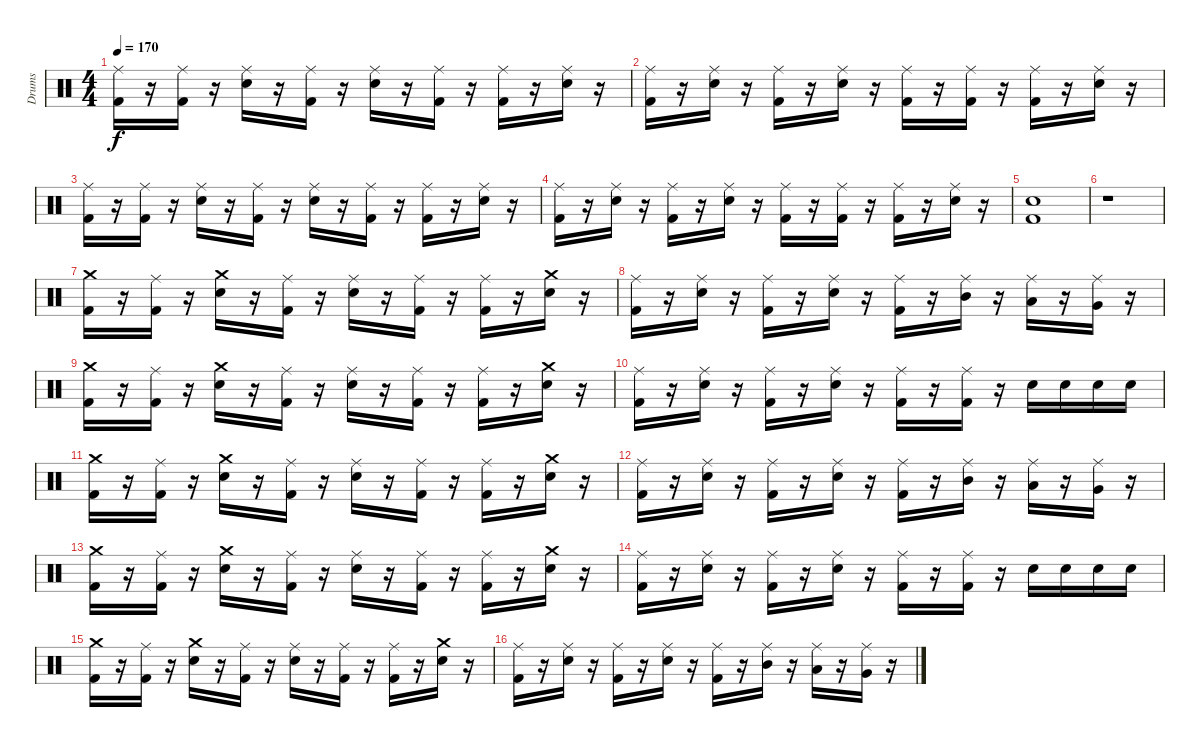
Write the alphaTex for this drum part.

\track ("Drums" "Drums") {instrument percussion}
\staff {score}
\articulation defaults
\ts (4 4)
\tempo 170
\clef neutral
\ks c
("Ride (middle)" "Kick (hit) 2").16{dy f} r.16 ("Ride (middle)" "Kick (hit) 2").16 r.16 ("Ride (middle)" "Snare (hit) 2").16 r.16 ("Ride (middle)" "Kick (hit) 2").16 r.16 ("Ride (middle)" "Snare (hit) 2").16 r.16 ("Ride (middle)" "Kick (hit) 2").16 r.16 ("Ride (middle)" "Kick (hit) 2").16 r.16 ("Ride (middle)" "Snare (hit) 2").16 r.16 |
("Ride (middle)" "Kick (hit) 2").16 r.16 ("Ride (middle)" "Snare (hit) 2").16 r.16 ("Ride (middle)" "Kick (hit) 2").16 r.16 ("Ride (middle)" "Snare (hit) 2").16 r.16 ("Ride (middle)" "Kick (hit) 2").16 r.16 ("Ride (middle)" "Kick (hit) 2").16 r.16 ("Ride (middle)" "Kick (hit) 2").16 r.16 ("Ride (middle)" "Snare (hit) 2").16 r.16 |
("Ride (middle)" "Kick (hit) 2").16 r.16 ("Ride (middle)" "Kick (hit) 2").16 r.16 ("Ride (middle)" "Snare (hit) 2").16 r.16 ("Ride (middle)" "Kick (hit) 2").16 r.16 ("Ride (middle)" "Snare (hit) 2").16 r.16 ("Ride (middle)" "Kick (hit) 2").16 r.16 ("Ride (middle)" "Kick (hit) 2").16 r.16 ("Ride (middle)" "Snare (hit) 2").16 r.16 |
("Ride (middle)" "Kick (hit) 2").16 r.16 ("Ride (middle)" "Snare (hit) 2").16 r.16 ("Ride (middle)" "Kick (hit) 2").16 r.16 ("Ride (middle)" "Snare (hit) 2").16 r.16 ("Ride (middle)" "Kick (hit) 2").16 r.16 ("Ride (middle)" "Kick (hit) 2").16 r.16 ("Ride (middle)" "Kick (hit) 2").16 r.16 ("Ride (middle)" "Snare (hit) 2").16 r.16 |
("Snare (hit) 2" "Kick (hit) 2").1 |
r.1 |
("Crash medium (hit)" "Kick (hit) 2").16 r.16 ("Ride (middle)" "Kick (hit) 2").16 r.16 ("Crash medium (hit)" "Snare (hit) 2").16 r.16 ("Ride (middle)" "Kick (hit) 2").16 r.16 ("Ride (middle)" "Snare (hit) 2").16 r.16 ("Ride (middle)" "Kick (hit) 2").16 r.16 ("Ride (middle)" "Kick (hit) 2").16 r.16 ("Crash medium (hit)" "Snare (hit) 2").16 r.16 |
("Ride (middle)" "Kick (hit) 2").16 r.16 ("Ride (middle)" "Snare (hit) 2").16 r.16 ("Ride (middle)" "Kick (hit) 2").16 r.16 ("Ride (middle)" "Snare (hit) 2").16 r.16 ("Ride (middle)" "Kick (hit) 2").16 r.16 ("Ride (middle)" "Mid Tom (hit)").16 r.16 ("Ride (middle)" "Low Tom (hit)").16 r.16 ("Ride (middle)" "Very Low Tom (hit)").16 r.16 |
("Crash medium (hit)" "Kick (hit) 2").16 r.16 ("Ride (middle)" "Kick (hit) 2").16 r.16 ("Crash medium (hit)" "Snare (hit) 2").16 r.16 ("Ride (middle)" "Kick (hit) 2").16 r.16 ("Ride (middle)" "Snare (hit) 2").16 r.16 ("Ride (middle)" "Kick (hit) 2").16 r.16 ("Ride (middle)" "Kick (hit) 2").16 r.16 ("Crash medium (hit)" "Snare (hit) 2").16 r.16 |
("Ride (middle)" "Kick (hit) 2").16 r.16 ("Ride (middle)" "Snare (hit) 2").16 r.16 ("Ride (middle)" "Kick (hit) 2").16 r.16 ("Ride (middle)" "Snare (hit) 2").16 r.16 ("Ride (middle)" "Kick (hit) 2").16 r.16 ("Ride (middle)" "Kick (hit) 2").16 r.16 "Snare (hit) 2".16 "Snare (hit) 2".16 "Snare (hit) 2".16 "Snare (hit) 2".16 |
("Crash medium (hit)" "Kick (hit) 2").16 r.16 ("Ride (middle)" "Kick (hit) 2").16 r.16 ("Crash medium (hit)" "Snare (hit) 2").16 r.16 ("Ride (middle)" "Kick (hit) 2").16 r.16 ("Ride (middle)" "Snare (hit) 2").16 r.16 ("Ride (middle)" "Kick (hit) 2").16 r.16 ("Ride (middle)" "Kick (hit) 2").16 r.16 ("Crash medium (hit)" "Snare (hit) 2").16 r.16 |
("Ride (middle)" "Kick (hit) 2").16 r.16 ("Ride (middle)" "Snare (hit) 2").16 r.16 ("Ride (middle)" "Kick (hit) 2").16 r.16 ("Ride (middle)" "Snare (hit) 2").16 r.16 ("Ride (middle)" "Kick (hit) 2").16 r.16 ("Ride (middle)" "Mid Tom (hit)").16 r.16 ("Ride (middle)" "Low Tom (hit)").16 r.16 ("Ride (middle)" "Very Low Tom (hit)").16 r.16 |
("Crash medium (hit)" "Kick (hit) 2").16 r.16 ("Ride (middle)" "Kick (hit) 2").16 r.16 ("Crash medium (hit)" "Snare (hit) 2").16 r.16 ("Ride (middle)" "Kick (hit) 2").16 r.16 ("Ride (middle)" "Snare (hit) 2").16 r.16 ("Ride (middle)" "Kick (hit) 2").16 r.16 ("Ride (middle)" "Kick (hit) 2").16 r.16 ("Crash medium (hit)" "Snare (hit) 2").16 r.16 |
("Ride (middle)" "Kick (hit) 2").16 r.16 ("Ride (middle)" "Snare (hit) 2").16 r.16 ("Ride (middle)" "Kick (hit) 2").16 r.16 ("Ride (middle)" "Snare (hit) 2").16 r.16 ("Ride (middle)" "Kick (hit) 2").16 r.16 ("Ride (middle)" "Kick (hit) 2").16 r.16 "Snare (hit) 2".16 "Snare (hit) 2".16 "Snare (hit) 2".16 "Snare (hit) 2".16 |
("Crash medium (hit)" "Kick (hit) 2").16 r.16 ("Ride (middle)" "Kick (hit) 2").16 r.16 ("Crash medium (hit)" "Snare (hit) 2").16 r.16 ("Ride (middle)" "Kick (hit) 2").16 r.16 ("Ride (middle)" "Snare (hit) 2").16 r.16 ("Ride (middle)" "Kick (hit) 2").16 r.16 ("Ride (middle)" "Kick (hit) 2").16 r.16 ("Crash medium (hit)" "Snare (hit) 2").16 r.16 |
("Ride (middle)" "Kick (hit) 2").16 r.16 ("Ride (middle)" "Snare (hit) 2").16 r.16 ("Ride (middle)" "Kick (hit) 2").16 r.16 ("Ride (middle)" "Snare (hit) 2").16 r.16 ("Ride (middle)" "Kick (hit) 2").16 r.16 ("Ride (middle)" "Mid Tom (hit)").16 r.16 ("Ride (middle)" "Low Tom (hit)").16 r.16 ("Ride (middle)" "Very Low Tom (hit)").16 r.16
